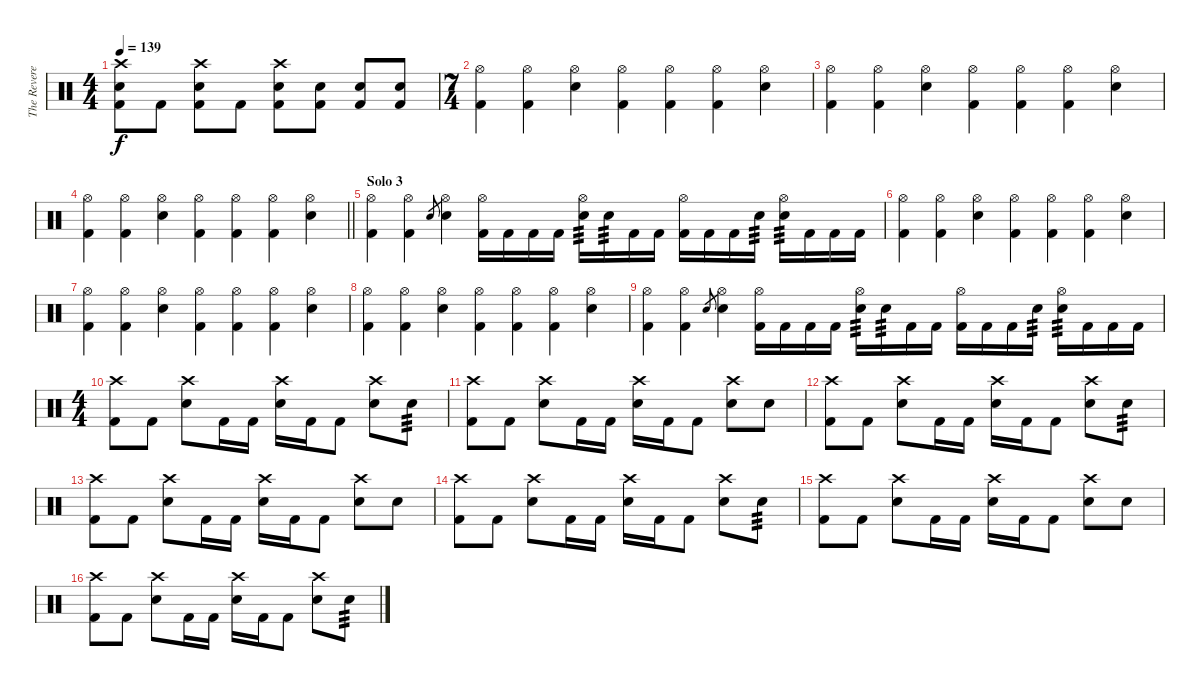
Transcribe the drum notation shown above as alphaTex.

\track ("The Reverend" "The Revere") {instrument percussion}
\staff {score}
\articulation defaults
\ts (4 4)
\tempo 139
\clef neutral
\ks c
("Crash high (hit)" "Electric Snare (hit)" "Kick (hit) 2").8{dy f} "Kick (hit) 2".8 ("Crash high (hit)" "Electric Snare (hit)" "Kick (hit) 2").8 "Kick (hit) 2".8 ("Crash high (hit)" "Electric Snare (hit)" "Kick (hit) 2").8 ("Electric Snare (hit)" "Kick (hit) 2").8 ("Electric Snare (hit)" "Kick (hit) 2").8 ("Electric Snare (hit)" "Kick (hit) 2").8 |
\ts (7 4)
("Hi-Hat (open)" "Kick (hit) 2").4 ("Hi-Hat (open)" "Kick (hit) 2").4 ("Hi-Hat (open)" "Electric Snare (hit)").4 ("Hi-Hat (open)" "Kick (hit) 2").4 ("Hi-Hat (open)" "Kick (hit) 2").4 ("Hi-Hat (open)" "Kick (hit) 2").4 ("Hi-Hat (open)" "Electric Snare (hit)").4 |
("Hi-Hat (open)" "Kick (hit) 2").4 ("Hi-Hat (open)" "Kick (hit) 2").4 ("Hi-Hat (open)" "Electric Snare (hit)").4 ("Hi-Hat (open)" "Kick (hit) 2").4 ("Hi-Hat (open)" "Kick (hit) 2").4 ("Hi-Hat (open)" "Kick (hit) 2").4 ("Hi-Hat (open)" "Electric Snare (hit)").4 |
\barLineRight lightlight
("Hi-Hat (open)" "Kick (hit) 2").4 ("Hi-Hat (open)" "Kick (hit) 2").4 ("Hi-Hat (open)" "Electric Snare (hit)").4 ("Hi-Hat (open)" "Kick (hit) 2").4 ("Hi-Hat (open)" "Kick (hit) 2").4 ("Hi-Hat (open)" "Kick (hit) 2").4 ("Hi-Hat (open)" "Electric Snare (hit)").4 |
\section ("" "Solo 3")
("Hi-Hat (open)" "Kick (hit) 2").4 ("Hi-Hat (open)" "Kick (hit) 2").4 "Electric Snare (hit)".8{gr} ("Hi-Hat (open)" "Electric Snare (hit)").4 ("Hi-Hat (open)" "Kick (hit) 2").16 "Kick (hit) 2".16 "Kick (hit) 2".16 "Kick (hit) 2".16 ("Hi-Hat (open)" "Electric Snare (hit)").16{tp 3} "Electric Snare (hit)".16{tp 3} "Kick (hit) 2".16 "Kick (hit) 2".16 ("Hi-Hat (open)" "Kick (hit) 2").16 "Kick (hit) 2".16 "Kick (hit) 2".16 "Electric Snare (hit)".16{tp 3} ("Hi-Hat (open)" "Electric Snare (hit)").16{tp 3} "Kick (hit) 2".16 "Kick (hit) 2".16 "Kick (hit) 2".16 |
("Hi-Hat (open)" "Kick (hit) 2").4 ("Hi-Hat (open)" "Kick (hit) 2").4 ("Hi-Hat (open)" "Electric Snare (hit)").4 ("Hi-Hat (open)" "Kick (hit) 2").4 ("Hi-Hat (open)" "Kick (hit) 2").4 ("Hi-Hat (open)" "Kick (hit) 2").4 ("Hi-Hat (open)" "Electric Snare (hit)").4 |
("Hi-Hat (open)" "Kick (hit) 2").4 ("Hi-Hat (open)" "Kick (hit) 2").4 ("Hi-Hat (open)" "Electric Snare (hit)").4 ("Hi-Hat (open)" "Kick (hit) 2").4 ("Hi-Hat (open)" "Kick (hit) 2").4 ("Hi-Hat (open)" "Kick (hit) 2").4 ("Hi-Hat (open)" "Electric Snare (hit)").4 |
("Hi-Hat (open)" "Kick (hit) 2").4 ("Hi-Hat (open)" "Kick (hit) 2").4 ("Hi-Hat (open)" "Electric Snare (hit)").4 ("Hi-Hat (open)" "Kick (hit) 2").4 ("Hi-Hat (open)" "Kick (hit) 2").4 ("Hi-Hat (open)" "Kick (hit) 2").4 ("Hi-Hat (open)" "Electric Snare (hit)").4 |
("Hi-Hat (open)" "Kick (hit) 2").4 ("Hi-Hat (open)" "Kick (hit) 2").4 "Electric Snare (hit)".8{gr} ("Hi-Hat (open)" "Electric Snare (hit)").4 ("Hi-Hat (open)" "Kick (hit) 2").16 "Kick (hit) 2".16 "Kick (hit) 2".16 "Kick (hit) 2".16 ("Hi-Hat (open)" "Electric Snare (hit)").16{tp 3} "Electric Snare (hit)".16{tp 3} "Kick (hit) 2".16 "Kick (hit) 2".16 ("Hi-Hat (open)" "Kick (hit) 2").16 "Kick (hit) 2".16 "Kick (hit) 2".16 "Electric Snare (hit)".16{tp 3} ("Hi-Hat (open)" "Electric Snare (hit)").16{tp 3} "Kick (hit) 2".16 "Kick (hit) 2".16 "Kick (hit) 2".16 |
\ts (4 4)
("Crash high (hit)" "Kick (hit) 2").8 "Kick (hit) 2".8 ("Crash high (hit)" "Electric Snare (hit)").8 "Kick (hit) 2".16 "Kick (hit) 2".16 ("Crash high (hit)" "Electric Snare (hit)").16 "Kick (hit) 2".16 "Kick (hit) 2".8 ("Crash high (hit)" "Electric Snare (hit)").8 "Electric Snare (hit)".8{tp 3} |
("Crash high (hit)" "Kick (hit) 2").8 "Kick (hit) 2".8 ("Crash high (hit)" "Electric Snare (hit)").8 "Kick (hit) 2".16 "Kick (hit) 2".16 ("Crash high (hit)" "Electric Snare (hit)").16 "Kick (hit) 2".16 "Kick (hit) 2".8 ("Crash high (hit)" "Electric Snare (hit)").8 "Electric Snare (hit)".8 |
("Crash high (hit)" "Kick (hit) 2").8 "Kick (hit) 2".8 ("Crash high (hit)" "Electric Snare (hit)").8 "Kick (hit) 2".16 "Kick (hit) 2".16 ("Crash high (hit)" "Electric Snare (hit)").16 "Kick (hit) 2".16 "Kick (hit) 2".8 ("Crash high (hit)" "Electric Snare (hit)").8 "Electric Snare (hit)".8{tp 3} |
("Crash high (hit)" "Kick (hit) 2").8 "Kick (hit) 2".8 ("Crash high (hit)" "Electric Snare (hit)").8 "Kick (hit) 2".16 "Kick (hit) 2".16 ("Crash high (hit)" "Electric Snare (hit)").16 "Kick (hit) 2".16 "Kick (hit) 2".8 ("Crash high (hit)" "Electric Snare (hit)").8 "Electric Snare (hit)".8 |
("Crash high (hit)" "Kick (hit) 2").8 "Kick (hit) 2".8 ("Crash high (hit)" "Electric Snare (hit)").8 "Kick (hit) 2".16 "Kick (hit) 2".16 ("Crash high (hit)" "Electric Snare (hit)").16 "Kick (hit) 2".16 "Kick (hit) 2".8 ("Crash high (hit)" "Electric Snare (hit)").8 "Electric Snare (hit)".8{tp 3} |
("Crash high (hit)" "Kick (hit) 2").8 "Kick (hit) 2".8 ("Crash high (hit)" "Electric Snare (hit)").8 "Kick (hit) 2".16 "Kick (hit) 2".16 ("Crash high (hit)" "Electric Snare (hit)").16 "Kick (hit) 2".16 "Kick (hit) 2".8 ("Crash high (hit)" "Electric Snare (hit)").8 "Electric Snare (hit)".8 |
("Crash high (hit)" "Kick (hit) 2").8 "Kick (hit) 2".8 ("Crash high (hit)" "Electric Snare (hit)").8 "Kick (hit) 2".16 "Kick (hit) 2".16 ("Crash high (hit)" "Electric Snare (hit)").16 "Kick (hit) 2".16 "Kick (hit) 2".8 ("Crash high (hit)" "Electric Snare (hit)").8 "Electric Snare (hit)".8{tp 3}
